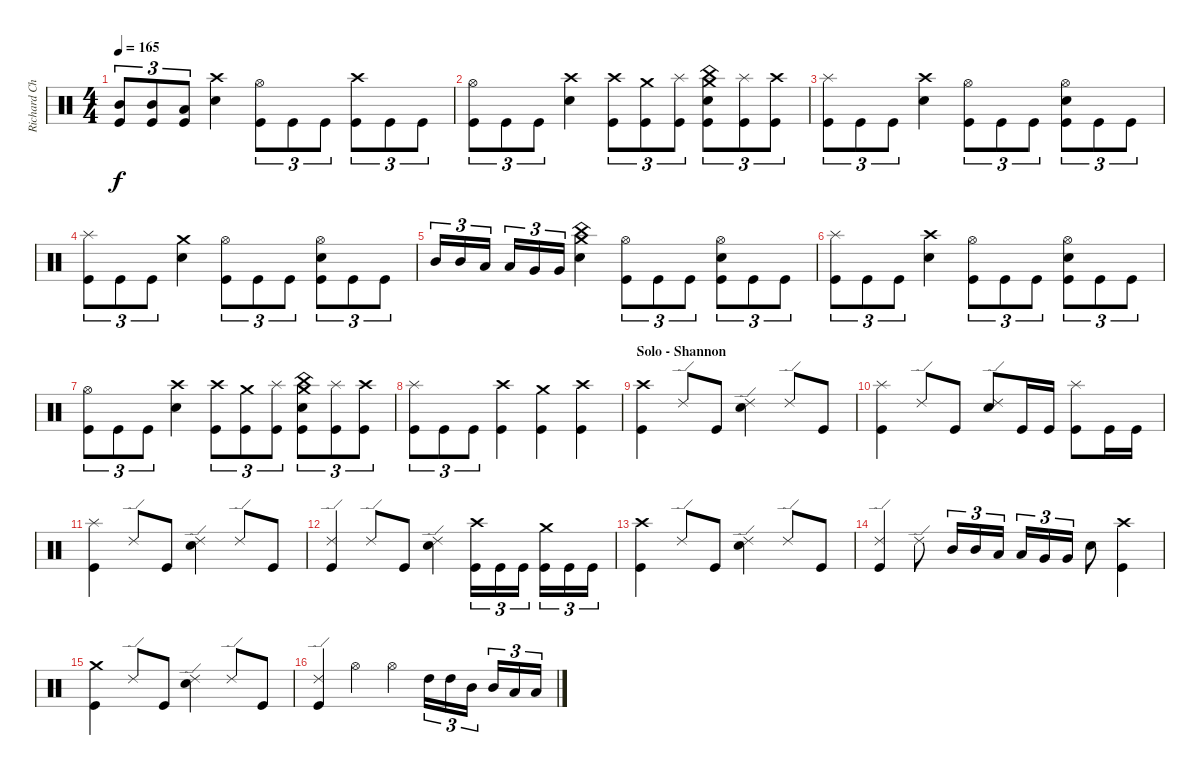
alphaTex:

\track ("Richard Christy " "Richard Ch") {instrument percussion}
\staff {score}
\articulation defaults
\ts (4 4)
\tempo 165
\clef neutral
\ks c
("Mid Tom (hit)" "Kick (hit)").8{tu (3 2) dy f} ("Mid Tom (hit)" "Kick (hit)").8{tu (3 2)} ("Low Tom (hit)" "Kick (hit)").8{tu (3 2)} ("Crash high (hit)" "Electric Snare (hit)").4 ("Hi-Hat (open)" "Kick (hit)").8{tu (3 2)} "Kick (hit)".8{tu (3 2)} "Kick (hit)".8{tu (3 2)} ("Crash high (hit)" "Kick (hit)").8{tu (3 2)} "Kick (hit)".8{tu (3 2)} "Kick (hit)".8{tu (3 2)} |
("Hi-Hat (open)" "Kick (hit)").8{tu (3 2)} "Kick (hit)".8{tu (3 2)} "Kick (hit)".8{tu (3 2)} ("Crash high (hit)" "Electric Snare (hit)").4 ("Crash high (hit)" "Kick (hit)").8{tu (3 2)} ("Crash medium (hit)" "Kick (hit)").8{tu (3 2)} ("Splash (hit)" "Kick (hit)").8{tu (3 2)} ("Crash medium (hit)" "China (hit)" "Electric Snare (hit)" "Kick (hit)").8{tu (3 2)} ("Splash (hit)" "Kick (hit)").8{tu (3 2)} ("Crash high (hit)" "Kick (hit)").8{tu (3 2)} |
("Splash (hit)" "Kick (hit)").8{tu (3 2)} "Kick (hit)".8{tu (3 2)} "Kick (hit)".8{tu (3 2)} ("Crash high (hit)" "Electric Snare (hit)").4 ("Hi-Hat (open)" "Kick (hit)").8{tu (3 2)} "Kick (hit)".8{tu (3 2)} "Kick (hit)".8{tu (3 2)} ("Hi-Hat (open)" "Electric Snare (hit)" "Kick (hit)").8{tu (3 2)} "Kick (hit)".8{tu (3 2)} "Kick (hit)".8{tu (3 2)} |
("Splash (hit)" "Kick (hit)").8{tu (3 2)} "Kick (hit)".8{tu (3 2)} "Kick (hit)".8{tu (3 2)} ("Crash medium (hit)" "Electric Snare (hit)").4 ("Hi-Hat (open)" "Kick (hit)").8{tu (3 2)} "Kick (hit)".8{tu (3 2)} "Kick (hit)".8{tu (3 2)} ("Hi-Hat (open)" "Electric Snare (hit)" "Kick (hit)").8{tu (3 2)} "Kick (hit)".8{tu (3 2)} "Kick (hit)".8{tu (3 2)} |
"Mid Tom (hit)".16{tu (3 2)} "Mid Tom (hit)".16{tu (3 2)} "Low Tom (hit)".16{tu (3 2)} "Low Tom (hit)".16{tu (3 2)} "Very Low Tom (hit)".16{tu (3 2)} "Very Low Tom (hit)".16{tu (3 2)} ("Crash medium (hit)" "China (hit)" "Electric Snare (hit)").4 ("Hi-Hat (open)" "Kick (hit)").8{tu (3 2)} "Kick (hit)".8{tu (3 2)} "Kick (hit)".8{tu (3 2)} ("Hi-Hat (open)" "Electric Snare (hit)" "Kick (hit)").8{tu (3 2)} "Kick (hit)".8{tu (3 2)} "Kick (hit)".8{tu (3 2)} |
("Splash (hit)" "Kick (hit)").8{tu (3 2)} "Kick (hit)".8{tu (3 2)} "Kick (hit)".8{tu (3 2)} ("Crash high (hit)" "Electric Snare (hit)").4 ("Hi-Hat (open)" "Kick (hit)").8{tu (3 2)} "Kick (hit)".8{tu (3 2)} "Kick (hit)".8{tu (3 2)} ("Hi-Hat (open)" "Electric Snare (hit)" "Kick (hit)").8{tu (3 2)} "Kick (hit)".8{tu (3 2)} "Kick (hit)".8{tu (3 2)} |
("Hi-Hat (open)" "Kick (hit)").8{tu (3 2)} "Kick (hit)".8{tu (3 2)} "Kick (hit)".8{tu (3 2)} ("Crash high (hit)" "Electric Snare (hit)").4 ("Crash high (hit)" "Kick (hit)").8{tu (3 2)} ("Crash medium (hit)" "Kick (hit)").8{tu (3 2)} ("Splash (hit)" "Kick (hit)").8{tu (3 2)} ("Crash medium (hit)" "China (hit)" "Electric Snare (hit)" "Kick (hit)").8{tu (3 2)} ("Splash (hit)" "Kick (hit)").8{tu (3 2)} ("Crash high (hit)" "Kick (hit)").8{tu (3 2)} |
("Splash (hit)" "Kick (hit)").8{tu (3 2)} "Kick (hit)".8{tu (3 2)} "Kick (hit)".8{tu (3 2)} ("Crash high (hit)" "Kick (hit)").4 ("Crash medium (hit)" "Kick (hit)").4 ("Crash high (hit)" "Kick (hit)").4 |
\section ("" "Solo - Shannon")
("Crash high (hit)" "Kick (hit)").4 "Ride (edge) 2".8 "Kick (hit)".8 ("Ride (edge) 2" "Electric Snare (hit)").4 "Ride (edge) 2".8 "Kick (hit)".8 |
("Splash (hit)" "Kick (hit)").4 "Ride (edge) 2".8 "Kick (hit)".8 ("Ride (edge) 2" "Electric Snare (hit)").8 "Kick (hit)".16 "Kick (hit)".16 ("Splash (hit)" "Kick (hit)").8 "Kick (hit)".16 "Kick (hit)".16 |
("Splash (hit)" "Kick (hit)").4 "Ride (edge) 2".8 "Kick (hit)".8 ("Ride (edge) 2" "Electric Snare (hit)").4 "Ride (edge) 2".8 "Kick (hit)".8 |
("Ride (edge) 2" "Kick (hit)").4 "Ride (edge) 2".8 "Kick (hit)".8 ("Ride (edge) 2" "Electric Snare (hit)").4 ("Crash high (hit)" "Kick (hit)").16{tu (3 2)} "Kick (hit)".16{tu (3 2)} "Kick (hit)".16{tu (3 2)} ("Crash medium (hit)" "Kick (hit)").16{tu (3 2)} "Kick (hit)".16{tu (3 2)} "Kick (hit)".16{tu (3 2)} |
("Crash high (hit)" "Kick (hit)").4 "Ride (edge) 2".8 "Kick (hit)".8 ("Ride (edge) 2" "Electric Snare (hit)").4 "Ride (edge) 2".8 "Kick (hit)".8 |
("Ride (edge) 2" "Kick (hit)").4 "Ride (edge) 2".8 "Mid Tom (hit)".16{tu (3 2)} "Mid Tom (hit)".16{tu (3 2)} "Low Tom (hit)".16{tu (3 2)} "Low Tom (hit)".16{tu (3 2)} "Very Low Tom (hit)".16{tu (3 2)} "Very Low Tom (hit)".16{tu (3 2)} "Electric Snare (hit)".8 ("Crash high (hit)" "Kick (hit)").4 |
("Crash medium (hit)" "Kick (hit)").4 "Ride (edge) 2".8 "Kick (hit)".8 ("Ride (edge) 2" "Electric Snare (hit)").4 "Ride (edge) 2".8 "Kick (hit)".8 |
("Ride (edge) 2" "Kick (hit)").4 "Hi-Hat (open)".4 "Hi-Hat (open)".4 "High Tom (hit)".16{tu (3 2)} "High Tom (hit)".16{tu (3 2)} "Mid Tom (hit)".16{tu (3 2)} "Mid Tom (hit)".16{tu (3 2)} "Low Tom (hit)".16{tu (3 2)} "Low Tom (hit)".16{tu (3 2)}
